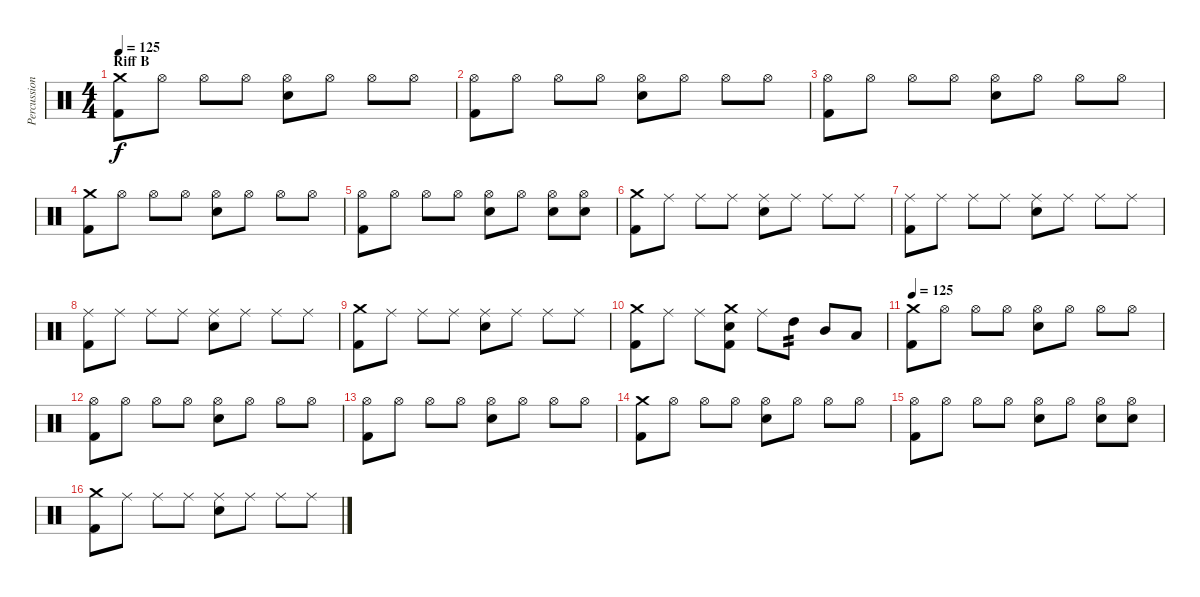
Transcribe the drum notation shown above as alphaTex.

\track ("Percussion" "Percussion") {instrument percussion}
\staff {score}
\articulation defaults
\ts (4 4)
\section ("" "Riff B")
\tempo 125
\clef neutral
\ks c
("Crash medium (hit)" "Kick (hit) 2").8{dy f} "Hi-Hat (open)".8 "Hi-Hat (open)".8 "Hi-Hat (open)".8 ("Hi-Hat (open)" "Snare (hit) 2").8 "Hi-Hat (open)".8 "Hi-Hat (open)".8 "Hi-Hat (open)".8 |
("Hi-Hat (open)" "Kick (hit) 2").8 "Hi-Hat (open)".8 "Hi-Hat (open)".8 "Hi-Hat (open)".8 ("Hi-Hat (open)" "Snare (hit) 2").8 "Hi-Hat (open)".8 "Hi-Hat (open)".8 "Hi-Hat (open)".8 |
("Hi-Hat (open)" "Kick (hit) 2").8 "Hi-Hat (open)".8 "Hi-Hat (open)".8 "Hi-Hat (open)".8 ("Hi-Hat (open)" "Snare (hit) 2").8 "Hi-Hat (open)".8 "Hi-Hat (open)".8 "Hi-Hat (open)".8 |
("Crash medium (hit)" "Kick (hit) 2").8 "Hi-Hat (open)".8 "Hi-Hat (open)".8 "Hi-Hat (open)".8 ("Hi-Hat (open)" "Snare (hit) 2").8 "Hi-Hat (open)".8 "Hi-Hat (open)".8 "Hi-Hat (open)".8 |
("Hi-Hat (open)" "Kick (hit) 2").8 "Hi-Hat (open)".8 "Hi-Hat (open)".8 "Hi-Hat (open)".8 ("Hi-Hat (open)" "Snare (hit) 2").8 "Hi-Hat (open)".8 ("Hi-Hat (open)" "Snare (hit) 2").8 ("Hi-Hat (open)" "Snare (hit) 2").8 |
("Crash medium (hit)" "Kick (hit) 2").8 "Ride (middle)".8 "Ride (middle)".8 "Ride (middle)".8 ("Ride (middle)" "Snare (hit) 2").8 "Ride (middle)".8 "Ride (middle)".8 "Ride (middle)".8 |
("Ride (middle)" "Kick (hit) 2").8 "Ride (middle)".8 "Ride (middle)".8 "Ride (middle)".8 ("Ride (middle)" "Snare (hit) 2").8 "Ride (middle)".8 "Ride (middle)".8 "Ride (middle)".8 |
("Ride (middle)" "Kick (hit) 2").8 "Ride (middle)".8 "Ride (middle)".8 "Ride (middle)".8 ("Ride (middle)" "Snare (hit) 2").8 "Ride (middle)".8 "Ride (middle)".8 "Ride (middle)".8 |
("Crash medium (hit)" "Kick (hit) 2").8 "Ride (middle)".8 "Ride (middle)".8 "Ride (middle)".8 ("Ride (middle)" "Snare (hit) 2").8 "Ride (middle)".8 "Ride (middle)".8 "Ride (middle)".8 |
("Crash medium (hit)" "Kick (hit) 2").8 "Ride (middle)".8 "Ride (middle)".8 ("Crash medium (hit)" "Snare (hit) 2" "Kick (hit) 2").8 "Ride (middle)".8 "High Tom (hit)".8{tp 2} "Mid Tom (hit)".8 "Low Tom (hit)".8 |
\tempo 125
("Crash medium (hit)" "Kick (hit) 2").8 "Hi-Hat (open)".8 "Hi-Hat (open)".8 "Hi-Hat (open)".8 ("Hi-Hat (open)" "Snare (hit) 2").8 "Hi-Hat (open)".8 "Hi-Hat (open)".8 "Hi-Hat (open)".8 |
("Hi-Hat (open)" "Kick (hit) 2").8 "Hi-Hat (open)".8 "Hi-Hat (open)".8 "Hi-Hat (open)".8 ("Hi-Hat (open)" "Snare (hit) 2").8 "Hi-Hat (open)".8 "Hi-Hat (open)".8 "Hi-Hat (open)".8 |
("Hi-Hat (open)" "Kick (hit) 2").8 "Hi-Hat (open)".8 "Hi-Hat (open)".8 "Hi-Hat (open)".8 ("Hi-Hat (open)" "Snare (hit) 2").8 "Hi-Hat (open)".8 "Hi-Hat (open)".8 "Hi-Hat (open)".8 |
("Crash medium (hit)" "Kick (hit) 2").8 "Hi-Hat (open)".8 "Hi-Hat (open)".8 "Hi-Hat (open)".8 ("Hi-Hat (open)" "Snare (hit) 2").8 "Hi-Hat (open)".8 "Hi-Hat (open)".8 "Hi-Hat (open)".8 |
("Hi-Hat (open)" "Kick (hit) 2").8 "Hi-Hat (open)".8 "Hi-Hat (open)".8 "Hi-Hat (open)".8 ("Hi-Hat (open)" "Snare (hit) 2").8 "Hi-Hat (open)".8 ("Hi-Hat (open)" "Snare (hit) 2").8 ("Hi-Hat (open)" "Snare (hit) 2").8 |
("Crash medium (hit)" "Kick (hit) 2").8 "Ride (middle)".8 "Ride (middle)".8 "Ride (middle)".8 ("Ride (middle)" "Snare (hit) 2").8 "Ride (middle)".8 "Ride (middle)".8 "Ride (middle)".8
